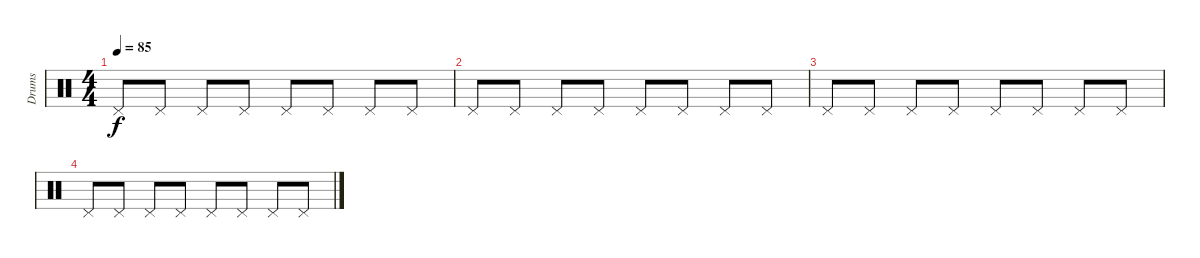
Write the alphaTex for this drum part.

\track ("Drums" "Drums") {solo instrument percussion}
\staff {score}
\articulation defaults
\ts (4 4)
\tempo 85
\clef neutral
\ks c "Pedal Hi-Hat (hit)".8{dy f} "Pedal Hi-Hat (hit)".8 "Pedal Hi-Hat (hit)".8 "Pedal Hi-Hat (hit)".8 "Pedal Hi-Hat (hit)".8 "Pedal Hi-Hat (hit)".8 "Pedal Hi-Hat (hit)".8 "Pedal Hi-Hat (hit)".8
|
"Pedal Hi-Hat (hit)".8 "Pedal Hi-Hat (hit)".8 "Pedal Hi-Hat (hit)".8 "Pedal Hi-Hat (hit)".8 "Pedal Hi-Hat (hit)".8 "Pedal Hi-Hat (hit)".8 "Pedal Hi-Hat (hit)".8 "Pedal Hi-Hat (hit)".8 |
"Pedal Hi-Hat (hit)".8 "Pedal Hi-Hat (hit)".8 "Pedal Hi-Hat (hit)".8 "Pedal Hi-Hat (hit)".8 "Pedal Hi-Hat (hit)".8 "Pedal Hi-Hat (hit)".8 "Pedal Hi-Hat (hit)".8 "Pedal Hi-Hat (hit)".8 |
"Pedal Hi-Hat (hit)".8 "Pedal Hi-Hat (hit)".8 "Pedal Hi-Hat (hit)".8 "Pedal Hi-Hat (hit)".8 "Pedal Hi-Hat (hit)".8 "Pedal Hi-Hat (hit)".8 "Pedal Hi-Hat (hit)".8 "Pedal Hi-Hat (hit)".8
